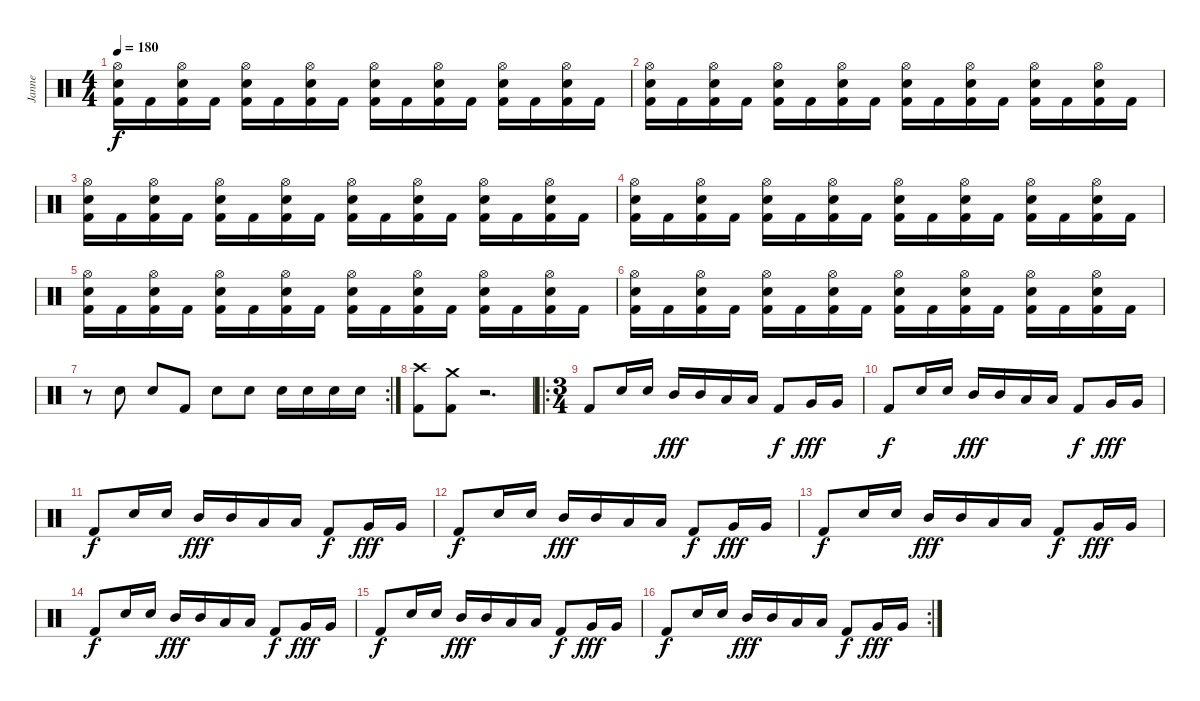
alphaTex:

\track ("Janne" "Janne") {instrument percussion}
\staff {score}
\articulation defaults
\ts (4 4)
\tempo 180
\clef neutral
\ks c
("Hi-Hat (open)" "Electric Snare (hit)" "Kick (hit) 2").16{dy f} "Kick (hit) 2".16 ("Hi-Hat (open)" "Electric Snare (hit)" "Kick (hit) 2").16 "Kick (hit) 2".16 ("Hi-Hat (open)" "Electric Snare (hit)" "Kick (hit) 2").16 "Kick (hit) 2".16 ("Hi-Hat (open)" "Electric Snare (hit)" "Kick (hit) 2").16 "Kick (hit) 2".16 ("Hi-Hat (open)" "Electric Snare (hit)" "Kick (hit) 2").16 "Kick (hit) 2".16 ("Hi-Hat (open)" "Electric Snare (hit)" "Kick (hit) 2").16 "Kick (hit) 2".16 ("Hi-Hat (open)" "Electric Snare (hit)" "Kick (hit) 2").16 "Kick (hit) 2".16 ("Hi-Hat (open)" "Electric Snare (hit)" "Kick (hit) 2").16 "Kick (hit) 2".16 |
("Hi-Hat (open)" "Electric Snare (hit)" "Kick (hit) 2").16 "Kick (hit) 2".16 ("Hi-Hat (open)" "Electric Snare (hit)" "Kick (hit) 2").16 "Kick (hit) 2".16 ("Hi-Hat (open)" "Electric Snare (hit)" "Kick (hit) 2").16 "Kick (hit) 2".16 ("Hi-Hat (open)" "Electric Snare (hit)" "Kick (hit) 2").16 "Kick (hit) 2".16 ("Hi-Hat (open)" "Electric Snare (hit)" "Kick (hit) 2").16 "Kick (hit) 2".16 ("Hi-Hat (open)" "Electric Snare (hit)" "Kick (hit) 2").16 "Kick (hit) 2".16 ("Hi-Hat (open)" "Electric Snare (hit)" "Kick (hit) 2").16 "Kick (hit) 2".16 ("Hi-Hat (open)" "Electric Snare (hit)" "Kick (hit) 2").16 "Kick (hit) 2".16 |
("Hi-Hat (open)" "Electric Snare (hit)" "Kick (hit) 2").16 "Kick (hit) 2".16 ("Hi-Hat (open)" "Electric Snare (hit)" "Kick (hit) 2").16 "Kick (hit) 2".16 ("Hi-Hat (open)" "Electric Snare (hit)" "Kick (hit) 2").16 "Kick (hit) 2".16 ("Hi-Hat (open)" "Electric Snare (hit)" "Kick (hit) 2").16 "Kick (hit) 2".16 ("Hi-Hat (open)" "Electric Snare (hit)" "Kick (hit) 2").16 "Kick (hit) 2".16 ("Hi-Hat (open)" "Electric Snare (hit)" "Kick (hit) 2").16 "Kick (hit) 2".16 ("Hi-Hat (open)" "Electric Snare (hit)" "Kick (hit) 2").16 "Kick (hit) 2".16 ("Hi-Hat (open)" "Electric Snare (hit)" "Kick (hit) 2").16 "Kick (hit) 2".16 |
("Hi-Hat (open)" "Electric Snare (hit)" "Kick (hit) 2").16 "Kick (hit) 2".16 ("Hi-Hat (open)" "Electric Snare (hit)" "Kick (hit) 2").16 "Kick (hit) 2".16 ("Hi-Hat (open)" "Electric Snare (hit)" "Kick (hit) 2").16 "Kick (hit) 2".16 ("Hi-Hat (open)" "Electric Snare (hit)" "Kick (hit) 2").16 "Kick (hit) 2".16 ("Hi-Hat (open)" "Electric Snare (hit)" "Kick (hit) 2").16 "Kick (hit) 2".16 ("Hi-Hat (open)" "Electric Snare (hit)" "Kick (hit) 2").16 "Kick (hit) 2".16 ("Hi-Hat (open)" "Electric Snare (hit)" "Kick (hit) 2").16 "Kick (hit) 2".16 ("Hi-Hat (open)" "Electric Snare (hit)" "Kick (hit) 2").16 "Kick (hit) 2".16 |
("Hi-Hat (open)" "Electric Snare (hit)" "Kick (hit) 2").16 "Kick (hit) 2".16 ("Hi-Hat (open)" "Electric Snare (hit)" "Kick (hit) 2").16 "Kick (hit) 2".16 ("Hi-Hat (open)" "Electric Snare (hit)" "Kick (hit) 2").16 "Kick (hit) 2".16 ("Hi-Hat (open)" "Electric Snare (hit)" "Kick (hit) 2").16 "Kick (hit) 2".16 ("Hi-Hat (open)" "Electric Snare (hit)" "Kick (hit) 2").16 "Kick (hit) 2".16 ("Hi-Hat (open)" "Electric Snare (hit)" "Kick (hit) 2").16 "Kick (hit) 2".16 ("Hi-Hat (open)" "Electric Snare (hit)" "Kick (hit) 2").16 "Kick (hit) 2".16 ("Hi-Hat (open)" "Electric Snare (hit)" "Kick (hit) 2").16 "Kick (hit) 2".16 |
("Hi-Hat (open)" "Electric Snare (hit)" "Kick (hit) 2").16 "Kick (hit) 2".16 ("Hi-Hat (open)" "Electric Snare (hit)" "Kick (hit) 2").16 "Kick (hit) 2".16 ("Hi-Hat (open)" "Electric Snare (hit)" "Kick (hit) 2").16 "Kick (hit) 2".16 ("Hi-Hat (open)" "Electric Snare (hit)" "Kick (hit) 2").16 "Kick (hit) 2".16 ("Hi-Hat (open)" "Electric Snare (hit)" "Kick (hit) 2").16 "Kick (hit) 2".16 ("Hi-Hat (open)" "Electric Snare (hit)" "Kick (hit) 2").16 "Kick (hit) 2".16 ("Hi-Hat (open)" "Electric Snare (hit)" "Kick (hit) 2").16 "Kick (hit) 2".16 ("Hi-Hat (open)" "Electric Snare (hit)" "Kick (hit) 2").16 "Kick (hit) 2".16 |
\rc 2
r.8 "Electric Snare (hit)".8 "Electric Snare (hit)".8 "Kick (hit) 2".8 "Electric Snare (hit)".8 "Electric Snare (hit)".8 "Electric Snare (hit)".16 "Electric Snare (hit)".16 "Electric Snare (hit)".16 "Electric Snare (hit)".16 |
("Crash high (hit)" "Kick (hit) 2").8 ("Crash medium (hit)" "Kick (hit) 2").8 r.2{d} |
\ro
\ts (3 4)
"Kick (hit) 2".8 "Electric Snare (hit)".16 "Electric Snare (hit)".16 "Mid Tom (hit)".16{dy fff} "Mid Tom (hit)".16 "Low Tom (hit)".16 "Low Tom (hit)".16 "Kick (hit) 2".8{dy f} "Very Low Tom (hit)".16{dy fff} "Very Low Tom (hit)".16 |
"Kick (hit) 2".8{dy f} "Electric Snare (hit)".16 "Electric Snare (hit)".16 "Mid Tom (hit)".16{dy fff} "Mid Tom (hit)".16 "Low Tom (hit)".16 "Low Tom (hit)".16 "Kick (hit) 2".8{dy f} "Very Low Tom (hit)".16{dy fff} "Very Low Tom (hit)".16 |
"Kick (hit) 2".8{dy f} "Electric Snare (hit)".16 "Electric Snare (hit)".16 "Mid Tom (hit)".16{dy fff} "Mid Tom (hit)".16 "Low Tom (hit)".16 "Low Tom (hit)".16 "Kick (hit) 2".8{dy f} "Very Low Tom (hit)".16{dy fff} "Very Low Tom (hit)".16 |
"Kick (hit) 2".8{dy f} "Electric Snare (hit)".16 "Electric Snare (hit)".16 "Mid Tom (hit)".16{dy fff} "Mid Tom (hit)".16 "Low Tom (hit)".16 "Low Tom (hit)".16 "Kick (hit) 2".8{dy f} "Very Low Tom (hit)".16{dy fff} "Very Low Tom (hit)".16 |
"Kick (hit) 2".8{dy f} "Electric Snare (hit)".16 "Electric Snare (hit)".16 "Mid Tom (hit)".16{dy fff} "Mid Tom (hit)".16 "Low Tom (hit)".16 "Low Tom (hit)".16 "Kick (hit) 2".8{dy f} "Very Low Tom (hit)".16{dy fff} "Very Low Tom (hit)".16 |
"Kick (hit) 2".8{dy f} "Electric Snare (hit)".16 "Electric Snare (hit)".16 "Mid Tom (hit)".16{dy fff} "Mid Tom (hit)".16 "Low Tom (hit)".16 "Low Tom (hit)".16 "Kick (hit) 2".8{dy f} "Very Low Tom (hit)".16{dy fff} "Very Low Tom (hit)".16 |
"Kick (hit) 2".8{dy f} "Electric Snare (hit)".16 "Electric Snare (hit)".16 "Mid Tom (hit)".16{dy fff} "Mid Tom (hit)".16 "Low Tom (hit)".16 "Low Tom (hit)".16 "Kick (hit) 2".8{dy f} "Very Low Tom (hit)".16{dy fff} "Very Low Tom (hit)".16 |
\rc 2 "Kick (hit) 2".8{dy f} "Electric Snare (hit)".16 "Electric Snare (hit)".16 "Mid Tom (hit)".16{dy fff} "Mid Tom (hit)".16 "Low Tom (hit)".16 "Low Tom (hit)".16 "Kick (hit) 2".8{dy f} "Very Low Tom (hit)".16{dy fff} "Very Low Tom (hit)".16
